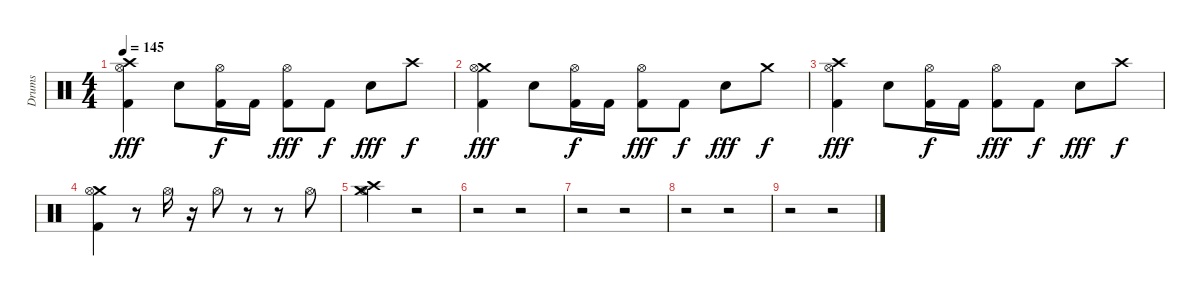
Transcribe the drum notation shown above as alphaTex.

\track ("Drums" "Drums") {instrument percussion}
\staff {score}
\articulation defaults
\ts (4 4)
\tempo 145
\clef neutral
\ks c
("Crash high (hit)" "Hi-Hat (open)" "Kick (hit) 2").4{dy fff} "Snare (hit) 2".8 ("Hi-Hat (open)" "Kick (hit) 2").16{dy f} "Kick (hit) 2".16 ("Hi-Hat (open)" "Kick (hit) 2").8{dy fff} "Kick (hit) 2".8{dy f} "Snare (hit) 2".8{dy fff} "Crash high (hit)".8{dy f} |
("Crash medium (hit)" "Hi-Hat (open)" "Kick (hit) 2").4{dy fff} "Snare (hit) 2".8 ("Hi-Hat (open)" "Kick (hit) 2").16{dy f} "Kick (hit) 2".16 ("Hi-Hat (open)" "Kick (hit) 2").8{dy fff} "Kick (hit) 2".8{dy f} "Snare (hit) 2".8{dy fff} "Crash medium (hit)".8{dy f} |
("Crash high (hit)" "Hi-Hat (open)" "Kick (hit) 2").4{dy fff} "Snare (hit) 2".8 ("Hi-Hat (open)" "Kick (hit) 2").16{dy f} "Kick (hit) 2".16 ("Hi-Hat (open)" "Kick (hit) 2").8{dy fff} "Kick (hit) 2".8{dy f} "Snare (hit) 2".8{dy fff} "Crash high (hit)".8{dy f} |
("Crash medium (hit)" "Hi-Hat (open)" "Kick (hit) 2").4 r.8 "Hi-Hat (open)".16 r.16 "Hi-Hat (open)".8 r.8 r.8 "Hi-Hat (open)".8 |
("Crash high (hit)" "Crash medium (hit)" "Hi-Hat (open)").2 r.2 |
r.2 r.2 |
r.2 r.2 |
r.2 r.2 |
r.2 r.2
